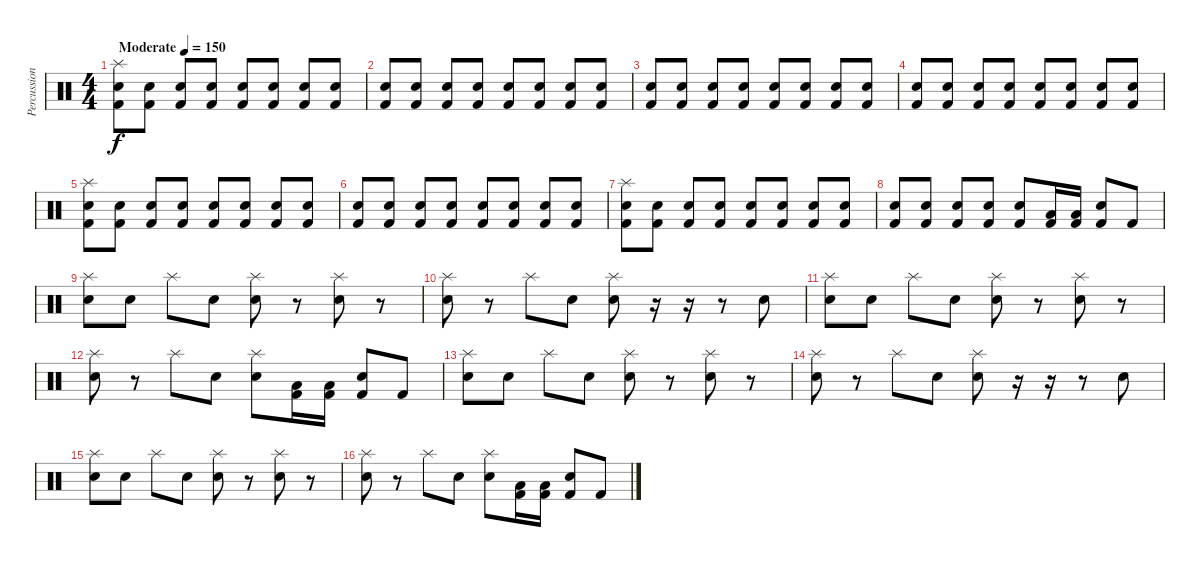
\track ("Percussions" "Percussion") {instrument percussion}
\staff {score}
\articulation defaults
\ts (4 4)
\tempo (150 "Moderate")
\clef neutral
\ks c
("Splash (hit)" "Electric Snare (hit)" "Kick (hit) 2").8{dy f} ("Electric Snare (hit)" "Kick (hit) 2").8 ("Electric Snare (hit)" "Kick (hit) 2").8 ("Electric Snare (hit)" "Kick (hit) 2").8 ("Electric Snare (hit)" "Kick (hit) 2").8 ("Electric Snare (hit)" "Kick (hit) 2").8 ("Electric Snare (hit)" "Kick (hit) 2").8 ("Electric Snare (hit)" "Kick (hit) 2").8 |
("Electric Snare (hit)" "Kick (hit) 2").8 ("Electric Snare (hit)" "Kick (hit) 2").8 ("Electric Snare (hit)" "Kick (hit) 2").8 ("Electric Snare (hit)" "Kick (hit) 2").8 ("Electric Snare (hit)" "Kick (hit) 2").8 ("Electric Snare (hit)" "Kick (hit) 2").8 ("Electric Snare (hit)" "Kick (hit) 2").8 ("Electric Snare (hit)" "Kick (hit) 2").8 |
("Electric Snare (hit)" "Kick (hit) 2").8 ("Electric Snare (hit)" "Kick (hit) 2").8 ("Electric Snare (hit)" "Kick (hit) 2").8 ("Electric Snare (hit)" "Kick (hit) 2").8 ("Electric Snare (hit)" "Kick (hit) 2").8 ("Electric Snare (hit)" "Kick (hit) 2").8 ("Electric Snare (hit)" "Kick (hit) 2").8 ("Electric Snare (hit)" "Kick (hit) 2").8 |
("Electric Snare (hit)" "Kick (hit) 2").8 ("Electric Snare (hit)" "Kick (hit) 2").8 ("Electric Snare (hit)" "Kick (hit) 2").8 ("Electric Snare (hit)" "Kick (hit) 2").8 ("Electric Snare (hit)" "Kick (hit) 2").8 ("Electric Snare (hit)" "Kick (hit) 2").8 ("Electric Snare (hit)" "Kick (hit) 2").8 ("Electric Snare (hit)" "Kick (hit) 2").8 |
("Splash (hit)" "Electric Snare (hit)" "Kick (hit) 2").8 ("Electric Snare (hit)" "Kick (hit) 2").8 ("Electric Snare (hit)" "Kick (hit) 2").8 ("Electric Snare (hit)" "Kick (hit) 2").8 ("Electric Snare (hit)" "Kick (hit) 2").8 ("Electric Snare (hit)" "Kick (hit) 2").8 ("Electric Snare (hit)" "Kick (hit) 2").8 ("Electric Snare (hit)" "Kick (hit) 2").8 |
("Electric Snare (hit)" "Kick (hit) 2").8 ("Electric Snare (hit)" "Kick (hit) 2").8 ("Electric Snare (hit)" "Kick (hit) 2").8 ("Electric Snare (hit)" "Kick (hit) 2").8 ("Electric Snare (hit)" "Kick (hit) 2").8 ("Electric Snare (hit)" "Kick (hit) 2").8 ("Electric Snare (hit)" "Kick (hit) 2").8 ("Electric Snare (hit)" "Kick (hit) 2").8 |
("Splash (hit)" "Electric Snare (hit)" "Kick (hit) 2").8 ("Electric Snare (hit)" "Kick (hit) 2").8 ("Electric Snare (hit)" "Kick (hit) 2").8 ("Electric Snare (hit)" "Kick (hit) 2").8 ("Electric Snare (hit)" "Kick (hit) 2").8 ("Electric Snare (hit)" "Kick (hit) 2").8 ("Electric Snare (hit)" "Kick (hit) 2").8 ("Electric Snare (hit)" "Kick (hit) 2").8 |
("Electric Snare (hit)" "Kick (hit) 2").8 ("Electric Snare (hit)" "Kick (hit) 2").8 ("Electric Snare (hit)" "Kick (hit) 2").8 ("Electric Snare (hit)" "Kick (hit) 2").8 ("Electric Snare (hit)" "Kick (hit) 2").8 ("Low Floor Tom (hit)" "Kick (hit) 2").16 ("Low Floor Tom (hit)" "Kick (hit) 2").16 ("Electric Snare (hit)" "Kick (hit) 2").8 "Kick (hit) 2".8 |
("Splash (hit)" "Snare (hit) 2").8 "Electric Snare (hit)".8 "Splash (hit)".8 "Electric Snare (hit)".8 ("Splash (hit)" "Snare (hit) 2").8 r.8 ("Splash (hit)" "Snare (hit) 2").8 r.8 |
("Splash (hit)" "Electric Snare (hit)").8 r.8 "Splash (hit)".8 "Electric Snare (hit)".8 ("Splash (hit)" "Snare (hit) 2").8 r.16 r.16 r.8 "Electric Snare (hit)".8 |
("Splash (hit)" "Snare (hit) 2").8 "Electric Snare (hit)".8 "Splash (hit)".8 "Electric Snare (hit)".8 ("Splash (hit)" "Snare (hit) 2").8 r.8 ("Splash (hit)" "Snare (hit) 2").8 r.8 |
("Splash (hit)" "Electric Snare (hit)").8 r.8 "Splash (hit)".8 "Electric Snare (hit)".8 ("Splash (hit)" "Snare (hit) 2").8 ("Low Floor Tom (hit)" "Kick (hit) 2").16 ("Low Floor Tom (hit)" "Kick (hit) 2").16 ("Electric Snare (hit)" "Kick (hit) 2").8 "Kick (hit) 2".8 |
("Splash (hit)" "Snare (hit) 2").8 "Electric Snare (hit)".8 "Splash (hit)".8 "Electric Snare (hit)".8 ("Splash (hit)" "Snare (hit) 2").8 r.8 ("Splash (hit)" "Snare (hit) 2").8 r.8 |
("Splash (hit)" "Electric Snare (hit)").8 r.8 "Splash (hit)".8 "Electric Snare (hit)".8 ("Splash (hit)" "Snare (hit) 2").8 r.16 r.16 r.8 "Electric Snare (hit)".8 |
("Splash (hit)" "Snare (hit) 2").8 "Electric Snare (hit)".8 "Splash (hit)".8 "Electric Snare (hit)".8 ("Splash (hit)" "Snare (hit) 2").8 r.8 ("Splash (hit)" "Snare (hit) 2").8 r.8 |
("Splash (hit)" "Electric Snare (hit)").8 r.8 "Splash (hit)".8 "Electric Snare (hit)".8 ("Splash (hit)" "Snare (hit) 2").8 ("Low Floor Tom (hit)" "Kick (hit) 2").16 ("Low Floor Tom (hit)" "Kick (hit) 2").16 ("Electric Snare (hit)" "Kick (hit) 2").8 "Kick (hit) 2".8
